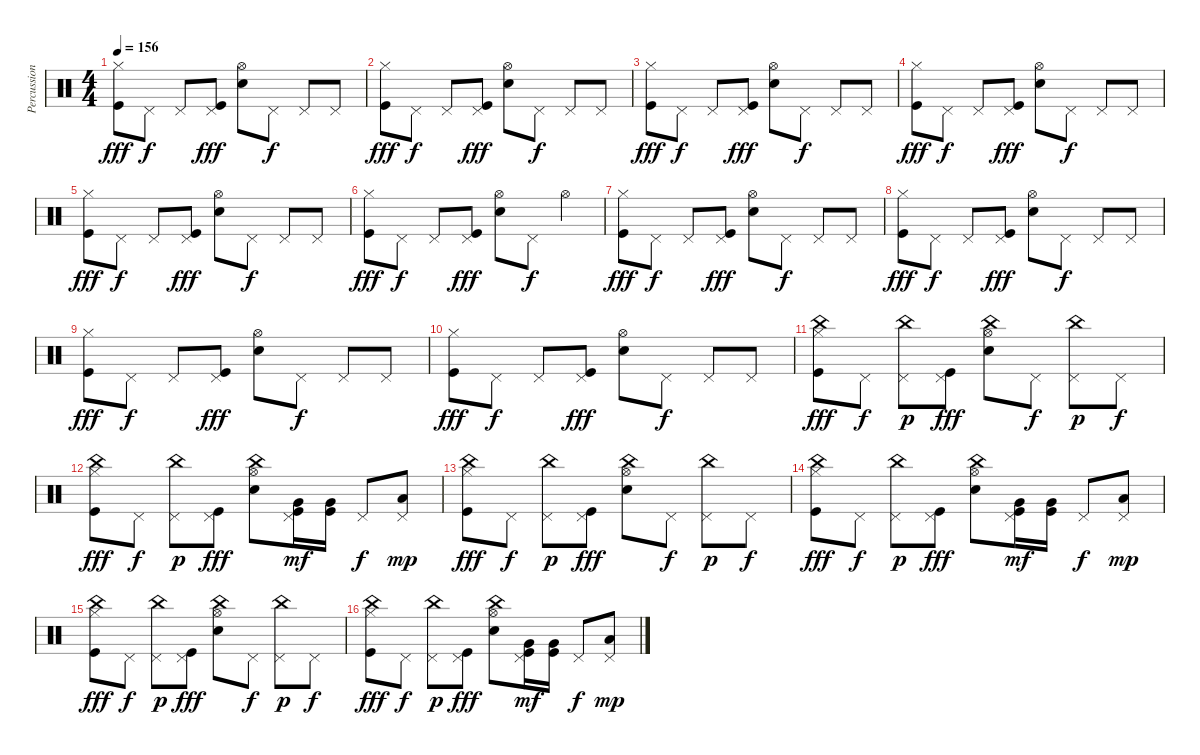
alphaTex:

\track ("Percussion" "Percussion") {instrument percussion}
\staff {score}
\articulation defaults
\ts (4 4)
\tempo 156
\clef neutral
\ks c
("Hi-Hat (closed)" "Kick (hit)").8{dy fff} "Pedal Hi-Hat (hit)".8{dy f} "Pedal Hi-Hat (hit)".8 ("Pedal Hi-Hat (hit)" "Kick (hit)").8{dy fff} ("Hi-Hat (open)" "Snare (hit) 2").8 "Pedal Hi-Hat (hit)".8{dy f} "Pedal Hi-Hat (hit)".8 "Pedal Hi-Hat (hit)".8 |
("Hi-Hat (closed)" "Kick (hit)").8{dy fff} "Pedal Hi-Hat (hit)".8{dy f} "Pedal Hi-Hat (hit)".8 ("Pedal Hi-Hat (hit)" "Kick (hit)").8{dy fff} ("Hi-Hat (open)" "Snare (hit) 2").8 "Pedal Hi-Hat (hit)".8{dy f} "Pedal Hi-Hat (hit)".8 "Pedal Hi-Hat (hit)".8 |
("Hi-Hat (closed)" "Kick (hit)").8{dy fff} "Pedal Hi-Hat (hit)".8{dy f} "Pedal Hi-Hat (hit)".8 ("Pedal Hi-Hat (hit)" "Kick (hit)").8{dy fff} ("Hi-Hat (open)" "Snare (hit) 2").8 "Pedal Hi-Hat (hit)".8{dy f} "Pedal Hi-Hat (hit)".8 "Pedal Hi-Hat (hit)".8 |
("Hi-Hat (closed)" "Kick (hit)").8{dy fff} "Pedal Hi-Hat (hit)".8{dy f} "Pedal Hi-Hat (hit)".8 ("Pedal Hi-Hat (hit)" "Kick (hit)").8{dy fff} ("Hi-Hat (open)" "Snare (hit) 2").8 "Pedal Hi-Hat (hit)".8{dy f} "Pedal Hi-Hat (hit)".8 "Pedal Hi-Hat (hit)".8 |
("Hi-Hat (closed)" "Kick (hit)").8{dy fff} "Pedal Hi-Hat (hit)".8{dy f} "Pedal Hi-Hat (hit)".8 ("Pedal Hi-Hat (hit)" "Kick (hit)").8{dy fff} ("Hi-Hat (open)" "Snare (hit) 2").8 "Pedal Hi-Hat (hit)".8{dy f} "Pedal Hi-Hat (hit)".8 "Pedal Hi-Hat (hit)".8 |
("Hi-Hat (closed)" "Kick (hit)").8{dy fff} "Pedal Hi-Hat (hit)".8{dy f} "Pedal Hi-Hat (hit)".8 ("Pedal Hi-Hat (hit)" "Kick (hit)").8{dy fff} ("Hi-Hat (open)" "Snare (hit) 2").8 "Pedal Hi-Hat (hit)".8{dy f} "Hi-Hat (open)".4 |
("Hi-Hat (closed)" "Kick (hit)").8{dy fff} "Pedal Hi-Hat (hit)".8{dy f} "Pedal Hi-Hat (hit)".8 ("Pedal Hi-Hat (hit)" "Kick (hit)").8{dy fff} ("Hi-Hat (open)" "Snare (hit) 2").8 "Pedal Hi-Hat (hit)".8{dy f} "Pedal Hi-Hat (hit)".8 "Pedal Hi-Hat (hit)".8 |
("Hi-Hat (closed)" "Kick (hit)").8{dy fff} "Pedal Hi-Hat (hit)".8{dy f} "Pedal Hi-Hat (hit)".8 ("Pedal Hi-Hat (hit)" "Kick (hit)").8{dy fff} ("Hi-Hat (open)" "Snare (hit) 2").8 "Pedal Hi-Hat (hit)".8{dy f} "Pedal Hi-Hat (hit)".8 "Pedal Hi-Hat (hit)".8 |
("Hi-Hat (closed)" "Kick (hit)").8{dy fff} "Pedal Hi-Hat (hit)".8{dy f} "Pedal Hi-Hat (hit)".8 ("Pedal Hi-Hat (hit)" "Kick (hit)").8{dy fff} ("Hi-Hat (open)" "Snare (hit) 2").8 "Pedal Hi-Hat (hit)".8{dy f} "Pedal Hi-Hat (hit)".8 "Pedal Hi-Hat (hit)".8 |
("Hi-Hat (closed)" "Kick (hit)").8{dy fff} "Pedal Hi-Hat (hit)".8{dy f} "Pedal Hi-Hat (hit)".8 ("Pedal Hi-Hat (hit)" "Kick (hit)").8{dy fff} ("Hi-Hat (open)" "Snare (hit) 2").8 "Pedal Hi-Hat (hit)".8{dy f} "Pedal Hi-Hat (hit)".8 "Pedal Hi-Hat (hit)".8 |
("China (hit)" "Hi-Hat (closed)" "Kick (hit)").8{dy fff} "Pedal Hi-Hat (hit)".8{dy f} ("China (hit)" "Pedal Hi-Hat (hit)").8{dy p} ("Pedal Hi-Hat (hit)" "Kick (hit)").8{dy fff} ("China (hit)" "Hi-Hat (open)" "Snare (hit) 2").8 "Pedal Hi-Hat (hit)".8{dy f} ("China (hit)" "Pedal Hi-Hat (hit)").8{dy p} "Pedal Hi-Hat (hit)".8{dy f} |
("China (hit)" "Hi-Hat (closed)" "Kick (hit)").8{dy fff} "Pedal Hi-Hat (hit)".8{dy f} ("China (hit)" "Pedal Hi-Hat (hit)").8{dy p} ("Pedal Hi-Hat (hit)" "Kick (hit)").8{dy fff} ("China (hit)" "Hi-Hat (open)" "Snare (hit) 2").8 ("Very Low Tom (hit)" "Pedal Hi-Hat (hit)" "Kick (hit)").16{dy mf} ("Very Low Tom (hit)" "Kick (hit)").16 "Pedal Hi-Hat (hit)".8{dy f} ("Low Tom (hit)" "Pedal Hi-Hat (hit)").8{dy mp} |
("China (hit)" "Hi-Hat (closed)" "Kick (hit)").8{dy fff} "Pedal Hi-Hat (hit)".8{dy f} ("China (hit)" "Pedal Hi-Hat (hit)").8{dy p} ("Pedal Hi-Hat (hit)" "Kick (hit)").8{dy fff} ("China (hit)" "Hi-Hat (open)" "Snare (hit) 2").8 "Pedal Hi-Hat (hit)".8{dy f} ("China (hit)" "Pedal Hi-Hat (hit)").8{dy p} "Pedal Hi-Hat (hit)".8{dy f} |
("China (hit)" "Hi-Hat (closed)" "Kick (hit)").8{dy fff} "Pedal Hi-Hat (hit)".8{dy f} ("China (hit)" "Pedal Hi-Hat (hit)").8{dy p} ("Pedal Hi-Hat (hit)" "Kick (hit)").8{dy fff} ("China (hit)" "Hi-Hat (open)" "Snare (hit) 2").8 ("Very Low Tom (hit)" "Pedal Hi-Hat (hit)" "Kick (hit)").16{dy mf} ("Very Low Tom (hit)" "Kick (hit)").16 "Pedal Hi-Hat (hit)".8{dy f} ("Low Tom (hit)" "Pedal Hi-Hat (hit)").8{dy mp} |
("China (hit)" "Hi-Hat (closed)" "Kick (hit)").8{dy fff} "Pedal Hi-Hat (hit)".8{dy f} ("China (hit)" "Pedal Hi-Hat (hit)").8{dy p} ("Pedal Hi-Hat (hit)" "Kick (hit)").8{dy fff} ("China (hit)" "Hi-Hat (open)" "Snare (hit) 2").8 "Pedal Hi-Hat (hit)".8{dy f} ("China (hit)" "Pedal Hi-Hat (hit)").8{dy p} "Pedal Hi-Hat (hit)".8{dy f} |
("China (hit)" "Hi-Hat (closed)" "Kick (hit)").8{dy fff} "Pedal Hi-Hat (hit)".8{dy f} ("China (hit)" "Pedal Hi-Hat (hit)").8{dy p} ("Pedal Hi-Hat (hit)" "Kick (hit)").8{dy fff} ("China (hit)" "Hi-Hat (open)" "Snare (hit) 2").8 ("Very Low Tom (hit)" "Pedal Hi-Hat (hit)" "Kick (hit)").16{dy mf} ("Very Low Tom (hit)" "Kick (hit)").16 "Pedal Hi-Hat (hit)".8{dy f} ("Low Tom (hit)" "Pedal Hi-Hat (hit)").8{dy mp}
